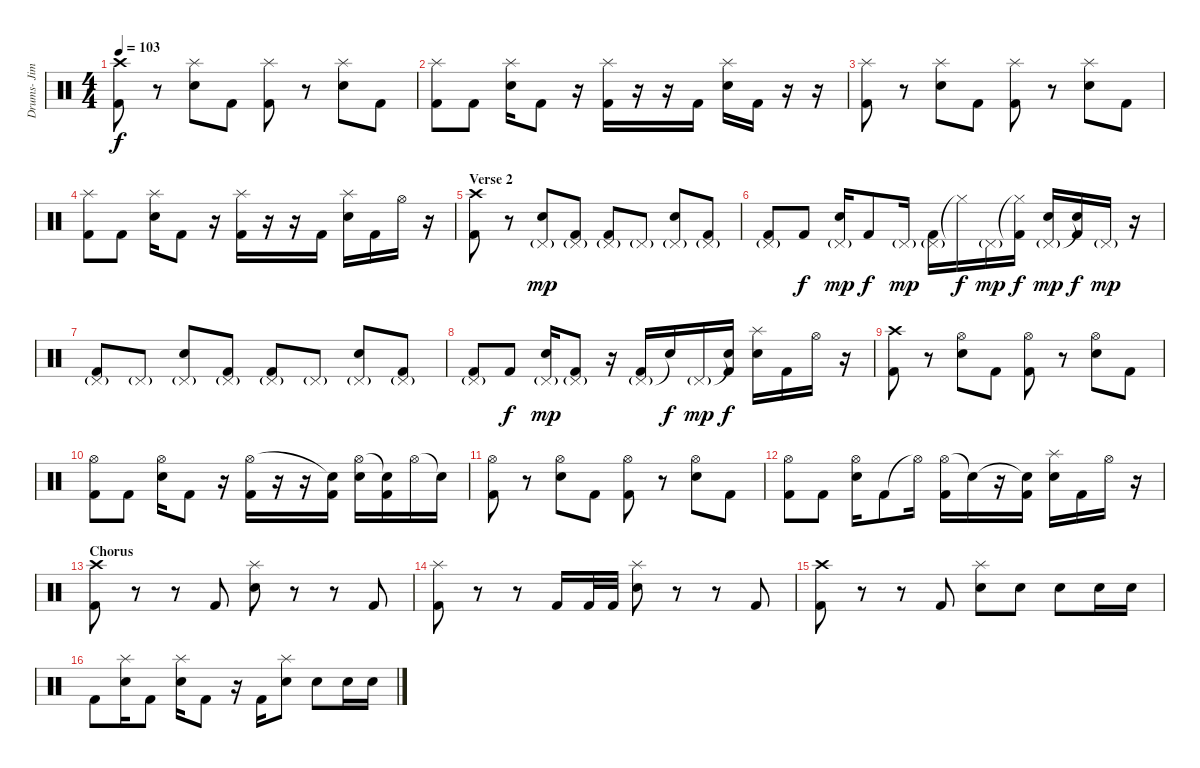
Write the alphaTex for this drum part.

\track ("Drums- Jimmy Bower" "Drums- Jim") {instrument percussion}
\staff {score}
\articulation defaults
\ts (4 4)
\tempo 103
\clef neutral
\ks c
("Crash high (hit)" "Kick (hit) 2").8{dy f} r.8 ("Splash (hit)" "Electric Snare (hit)").8 "Kick (hit) 2".8 ("Splash (hit)" "Kick (hit) 2").8 r.8 ("Splash (hit)" "Electric Snare (hit)").8 "Kick (hit) 2".8 |
("Splash (hit)" "Kick (hit) 2").8 "Kick (hit) 2".8 ("Splash (hit)" "Electric Snare (hit)").16 "Kick (hit) 2".8 r.16 ("Splash (hit)" "Kick (hit) 2").16 r.16 r.16 "Kick (hit) 2".16 ("Splash (hit)" "Electric Snare (hit)").16 "Kick (hit) 2".16 r.16 r.16 |
("Splash (hit)" "Kick (hit) 2").8 r.8 ("Splash (hit)" "Electric Snare (hit)").8 "Kick (hit) 2".8 ("Splash (hit)" "Kick (hit) 2").8 r.8 ("Splash (hit)" "Electric Snare (hit)").8 "Kick (hit) 2".8 |
("Splash (hit)" "Kick (hit) 2").8 "Kick (hit) 2".8 ("Splash (hit)" "Electric Snare (hit)").16 "Kick (hit) 2".8 r.16 ("Splash (hit)" "Kick (hit) 2").16 r.16 r.16 "Kick (hit) 2".16 ("Splash (hit)" "Electric Snare (hit)").16 "Kick (hit) 2".16 "Hi-Hat (open)".16 r.16 |
\section ("" "Verse 2")
("Crash high (hit)" "Kick (hit) 2").8 r.8 ("Pedal Hi-Hat (hit)"{g} "Electric Snare (hit)").8{dy mp} ("Pedal Hi-Hat (hit)"{g} "Kick (hit) 2").8 ("Pedal Hi-Hat (hit)"{g} "Kick (hit) 2").8 "Pedal Hi-Hat (hit)"{g}.8 ("Pedal Hi-Hat (hit)"{g} "Electric Snare (hit)").8 ("Pedal Hi-Hat (hit)"{g} "Kick (hit) 2").8 |
("Pedal Hi-Hat (hit)"{g} "Kick (hit) 2").8 "Kick (hit) 2".8{dy f} ("Pedal Hi-Hat (hit)"{g} "Electric Snare (hit)").16{dy mp} "Kick (hit) 2".8{dy f} "Pedal Hi-Hat (hit)"{g}.16{dy mp} ("Pedal Hi-Hat (hit)"{g} "Kick (hit) 2").16 "Hi-Hat (closed)"{t}.16{dy f} "Pedal Hi-Hat (hit)"{g}.16{dy mp} ("Hi-Hat (closed)"{t} "Kick (hit) 2").16{dy f} ("Pedal Hi-Hat (hit)"{g} "Electric Snare (hit)").16{dy mp} ("Snare (hit)"{t} "Kick (hit) 2").16{dy f} "Pedal Hi-Hat (hit)"{g}.16{dy mp} r.16 |
("Pedal Hi-Hat (hit)"{g} "Kick (hit) 2").8 "Pedal Hi-Hat (hit)"{g}.8 ("Pedal Hi-Hat (hit)"{g} "Electric Snare (hit)").8 ("Pedal Hi-Hat (hit)"{g} "Kick (hit) 2").8 ("Pedal Hi-Hat (hit)"{g} "Kick (hit) 2").8 "Pedal Hi-Hat (hit)"{g}.8 ("Pedal Hi-Hat (hit)"{g} "Electric Snare (hit)").8 ("Pedal Hi-Hat (hit)"{g} "Kick (hit) 2").8 |
("Pedal Hi-Hat (hit)"{g} "Kick (hit) 2").8 "Kick (hit) 2".8{dy f} ("Pedal Hi-Hat (hit)"{g} "Electric Snare (hit)").16{dy mp} ("Pedal Hi-Hat (hit)"{g} "Kick (hit) 2").8 r.16 ("Pedal Hi-Hat (hit)"{g} "Kick (hit) 2").16 "Snare (hit)"{t}.16{dy f} "Pedal Hi-Hat (hit)"{g}.16{dy mp} ("Snare (hit)"{t} "Kick (hit) 2").16{dy f} ("Splash (hit)" "Electric Snare (hit)").16 "Kick (hit) 2".16 "Hi-Hat (open)".16 r.16 |
("Crash high (hit)" "Kick (hit) 2").8 r.8 ("Hi-Hat (open)" "Electric Snare (hit)").8 "Kick (hit) 2".8 ("Hi-Hat (open)" "Kick (hit) 2").8 r.8 ("Hi-Hat (open)" "Electric Snare (hit)").8 "Kick (hit) 2".8 |
("Hi-Hat (open)" "Kick (hit) 2").8 "Kick (hit) 2".8 ("Hi-Hat (open)" "Electric Snare (hit)").16 "Kick (hit) 2".8 r.16 ("Hi-Hat (open)" "Kick (hit) 2").16 r.16 r.16 ("Snare (hit)"{t} "Kick (hit) 2").16 ("Hi-Hat (open)" "Electric Snare (hit)").16 ("Snare (hit)"{t} "Kick (hit) 2").16 "Hi-Hat (open)".16 "Snare (hit)"{t}.16 |
("Hi-Hat (open)" "Kick (hit) 2").8 r.8 ("Hi-Hat (open)" "Electric Snare (hit)").8 "Kick (hit) 2".8 ("Hi-Hat (open)" "Kick (hit) 2").8 r.8 ("Hi-Hat (open)" "Electric Snare (hit)").8 "Kick (hit) 2".8 |
("Hi-Hat (open)" "Kick (hit) 2").8 "Kick (hit) 2".8 ("Hi-Hat (open)" "Electric Snare (hit)").16 "Kick (hit) 2".8 "Hi-Hat (open)"{t}.16 ("Hi-Hat (open)" "Kick (hit) 2").16 "Snare (hit)"{t}.16 r.16 ("Snare (hit)"{t} "Kick (hit) 2").16 ("Splash (hit)" "Electric Snare (hit)").16 "Kick (hit) 2".16 "Hi-Hat (open)".16 r.16 |
\section ("" "Chorus")
("Crash high (hit)" "Kick (hit) 2").8 r.8 r.8 "Kick (hit) 2".8 ("Splash (hit)" "Electric Snare (hit)").8 r.8 r.8 "Kick (hit) 2".8 |
("Splash (hit)" "Kick (hit) 2").8 r.8 r.8 "Kick (hit) 2".16 "Kick (hit) 2".32 "Kick (hit) 2".32 ("Splash (hit)" "Electric Snare (hit)").8 r.8 r.8 "Kick (hit) 2".8 |
("Crash high (hit)" "Kick (hit) 2").8 r.8 r.8 "Kick (hit) 2".8 ("Splash (hit)" "Electric Snare (hit)").8 "Electric Snare (hit)".8 "Electric Snare (hit)".8 "Electric Snare (hit)".16 "Electric Snare (hit)".16 |
"Kick (hit) 2".8 ("Splash (hit)" "Electric Snare (hit)").16 "Kick (hit) 2".8 ("Splash (hit)" "Electric Snare (hit)").16 "Kick (hit) 2".8 r.16 "Kick (hit) 2".16 ("Splash (hit)" "Electric Snare (hit)").8 "Electric Snare (hit)".8 "Electric Snare (hit)".16 "Electric Snare (hit)".16
